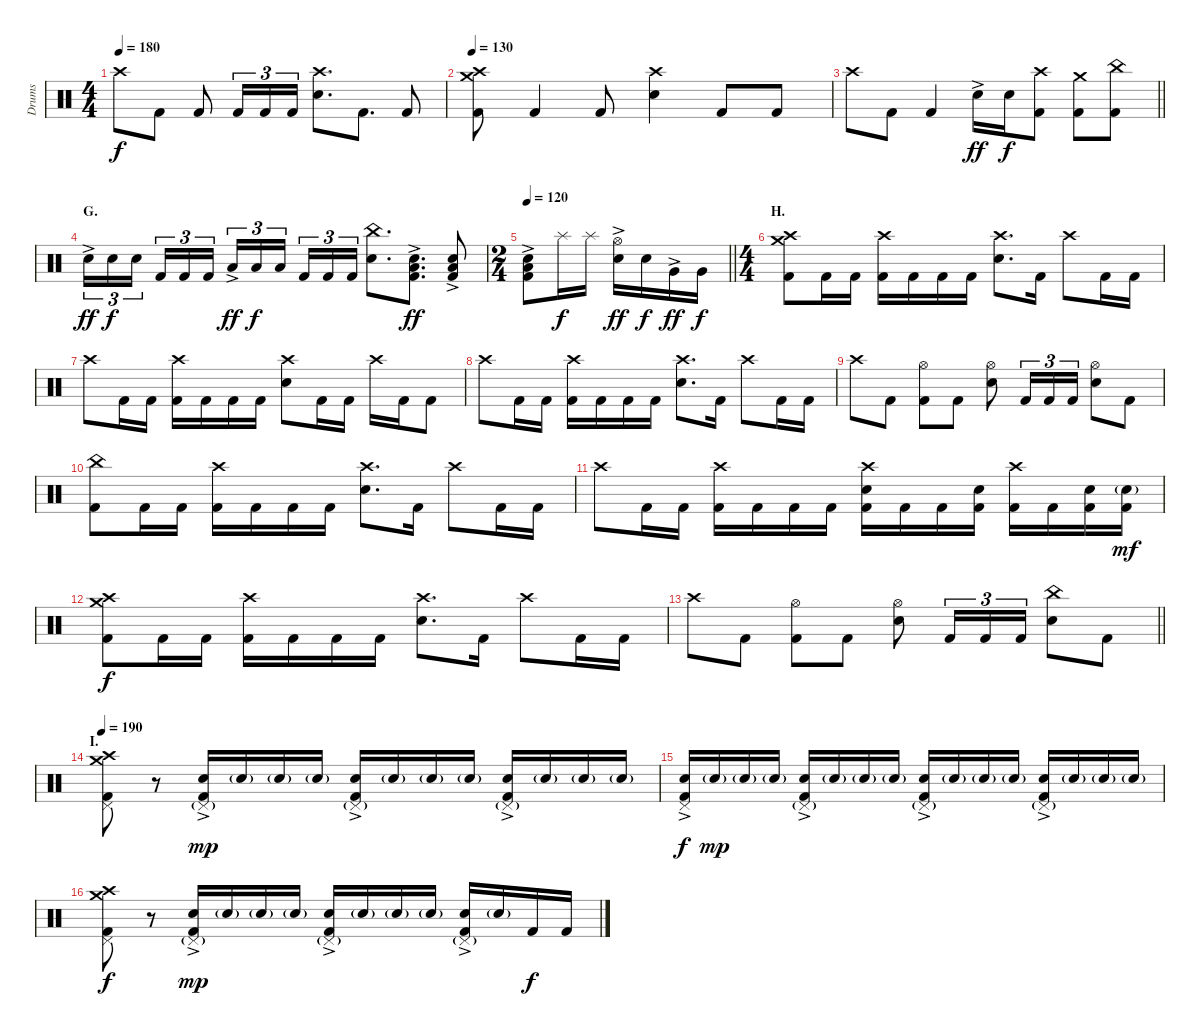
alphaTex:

\track ("Drums" "Drums") {instrument percussion}
\staff {score}
\articulation defaults
\ts (4 4)
\tempo 180
\clef neutral
\ks c "Crash high (hit)".8{dy f} "Kick (hit) 2".8 "Kick (hit) 2".8 "Kick (hit) 2".16{tu (3 2)} "Kick (hit) 2".16{tu (3 2)} "Kick (hit) 2".16{tu (3 2)}
("Crash high (hit)" "Electric Snare (hit)").8{d} "Kick (hit) 2".8{d} "Kick (hit) 2".8 |
\tempo 130
("Crash medium (hit)" "Crash high (hit)" "Kick (hit) 2").8 "Kick (hit) 2".4 "Kick (hit) 2".8 ("Crash high (hit)" "Electric Snare (hit)").4 "Kick (hit) 2".8 "Kick (hit) 2".8 |
\barLineRight lightlight "Crash high (hit)".8 "Kick (hit) 2".8 "Kick (hit) 2".4 "Electric Snare (hit)"{ac}.16{dy ff} "Electric Snare (hit)".16{dy f}
("Crash high (hit)" "Kick (hit) 2").8 ("Crash medium (hit)" "Kick (hit) 2").8 ("China (hit)" "Kick (hit) 2").8 |
\section ("" "G.")
"Electric Snare (hit)"{ac}.16{tu (3 2) dy ff} "Electric Snare (hit)".16{tu (3 2) dy f} "Electric Snare (hit)".16{tu (3 2) beam splitsecondary} "Kick (hit) 2".16{tu (3 2)} "Kick (hit) 2".16{tu (3 2)} "Kick (hit) 2".16{tu (3 2)} "Low Tom (hit)"{ac}.16{tu (3 2) dy ff} "Low Tom (hit)".16{tu (3 2) dy f} "Low Tom (hit)".16{tu (3 2) beam splitsecondary} "Kick (hit) 2".16{tu (3 2)} "Kick (hit) 2".16{tu (3 2)} "Kick (hit) 2".16{tu (3 2)} ("China (hit)" "Electric Snare (hit)").8{d} ("Electric Snare (hit)" "Low Floor Tom (hit)"{ac} "Kick (hit) 2").8{d dy ff} ("Electric Snare (hit)" "Low Floor Tom (hit)"{ac} "Kick (hit) 2").8 |
\ts (2 4)
\tempo 120
\barLineRight lightlight
("Electric Snare (hit)" "Low Floor Tom (hit)"{ac} "Kick (hit) 2").8 "Splash (hit)".16{dy f} "Splash (hit)".16 ("Hi-Hat (open)" "Electric Snare (hit)"{ac}).16{dy ff} "Electric Snare (hit)".16{dy f} "Very Low Tom (hit)"{ac}.16{dy ff} "Very Low Tom (hit)".16{dy f} |
\ts (4 4)
\section ("" "H.")
("Crash medium (hit)" "Crash high (hit)" "Kick (hit) 2").8 "Kick (hit) 2".16 "Kick (hit) 2".16 ("Crash high (hit)" "Kick (hit) 2").16 "Kick (hit) 2".16 "Kick (hit) 2".16 "Kick (hit) 2".16 ("Crash high (hit)" "Electric Snare (hit)").8{d} "Kick (hit) 2".16 "Crash high (hit)".8 "Kick (hit) 2".16 "Kick (hit) 2".16 |
"Crash high (hit)".8 "Kick (hit) 2".16 "Kick (hit) 2".16 ("Crash high (hit)" "Kick (hit) 2").16 "Kick (hit) 2".16 "Kick (hit) 2".16 "Kick (hit) 2".16 ("Crash high (hit)" "Electric Snare (hit)").8 "Kick (hit) 2".16 "Kick (hit) 2".16 "Crash high (hit)".16 "Kick (hit) 2".16 "Kick (hit) 2".8 |
"Crash high (hit)".8 "Kick (hit) 2".16 "Kick (hit) 2".16 ("Crash high (hit)" "Kick (hit) 2").16 "Kick (hit) 2".16 "Kick (hit) 2".16 "Kick (hit) 2".16 ("Crash high (hit)" "Electric Snare (hit)").8{d} "Kick (hit) 2".16 "Crash high (hit)".8 "Kick (hit) 2".16 "Kick (hit) 2".16 |
"Crash high (hit)".8 "Kick (hit) 2".8 ("Hi-Hat (open)" "Kick (hit) 2").8 "Kick (hit) 2".8 ("Hi-Hat (open)" "Electric Snare (hit)").8 "Kick (hit) 2".16{tu (3 2)} "Kick (hit) 2".16{tu (3 2)} "Kick (hit) 2".16{tu (3 2)} ("Hi-Hat (open)" "Electric Snare (hit)").8 "Kick (hit) 2".8 |
("China (hit)" "Kick (hit) 2").8 "Kick (hit) 2".16 "Kick (hit) 2".16 ("Crash high (hit)" "Kick (hit) 2").16 "Kick (hit) 2".16 "Kick (hit) 2".16 "Kick (hit) 2".16 ("Crash high (hit)" "Electric Snare (hit)").8{d} "Kick (hit) 2".16 "Crash high (hit)".8 "Kick (hit) 2".16 "Kick (hit) 2".16 |
"Crash high (hit)".8 "Kick (hit) 2".16 "Kick (hit) 2".16 ("Crash high (hit)" "Kick (hit) 2").16 "Kick (hit) 2".16 "Kick (hit) 2".16 "Kick (hit) 2".16 ("Crash high (hit)" "Electric Snare (hit)" "Kick (hit) 2").16 "Kick (hit) 2".16 "Kick (hit) 2".16 ("Electric Snare (hit)" "Kick (hit) 2").16 ("Crash high (hit)" "Kick (hit) 2").16 "Kick (hit) 2".16 ("Electric Snare (hit)" "Kick (hit) 2").16 ("Electric Snare (hit)"{g} "Kick (hit) 2").16{dy mf} |
("Crash medium (hit)" "Crash high (hit)" "Kick (hit) 2").8{dy f} "Kick (hit) 2".16 "Kick (hit) 2".16 ("Crash high (hit)" "Kick (hit) 2").16 "Kick (hit) 2".16 "Kick (hit) 2".16 "Kick (hit) 2".16 ("Crash high (hit)" "Electric Snare (hit)").8{d} "Kick (hit) 2".16 "Crash high (hit)".8 "Kick (hit) 2".16 "Kick (hit) 2".16 |
\barLineRight lightlight "Crash high (hit)".8 "Kick (hit) 2".8
("Hi-Hat (open)" "Kick (hit) 2").8 "Kick (hit) 2".8 ("Hi-Hat (open)" "Electric Snare (hit)").8 "Kick (hit) 2".16{tu (3 2)} "Kick (hit) 2".16{tu (3 2)} "Kick (hit) 2".16{tu (3 2)} ("China (hit)" "Electric Snare (hit)").8 "Kick (hit) 2".8 |
\section ("" "I.")
\tempo 190
("Crash medium (hit)" "Crash high (hit)" "Pedal Hi-Hat (hit)" "Kick (hit) 2").8 r.8 ("Pedal Hi-Hat (hit)"{g} "Electric Snare (hit)"{ac} "Kick (hit) 2").16{dy mp} "Electric Snare (hit)"{g}.16 "Electric Snare (hit)"{g}.16 "Electric Snare (hit)"{g}.16 ("Pedal Hi-Hat (hit)"{g} "Electric Snare (hit)"{ac} "Kick (hit) 2").16 "Electric Snare (hit)"{g}.16 "Electric Snare (hit)"{g}.16 "Electric Snare (hit)"{g}.16 ("Pedal Hi-Hat (hit)"{g} "Electric Snare (hit)"{ac} "Kick (hit) 2").16 "Electric Snare (hit)"{g}.16 "Electric Snare (hit)"{g}.16 "Electric Snare (hit)"{g}.16 |
("Pedal Hi-Hat (hit)" "Electric Snare (hit)"{ac} "Kick (hit) 2").16{dy f} "Electric Snare (hit)"{g}.16{dy mp} "Electric Snare (hit)"{g}.16 "Electric Snare (hit)"{g}.16 ("Pedal Hi-Hat (hit)"{g} "Electric Snare (hit)"{ac} "Kick (hit) 2").16 "Electric Snare (hit)"{g}.16 "Electric Snare (hit)"{g}.16 "Electric Snare (hit)"{g}.16 ("Pedal Hi-Hat (hit)"{g} "Electric Snare (hit)"{ac} "Kick (hit) 2").16 "Electric Snare (hit)"{g}.16 "Electric Snare (hit)"{g}.16 "Electric Snare (hit)"{g}.16 ("Pedal Hi-Hat (hit)"{g} "Electric Snare (hit)"{ac} "Kick (hit) 2").16 "Electric Snare (hit)"{g}.16 "Electric Snare (hit)"{g}.16 "Electric Snare (hit)"{g}.16 |
("Crash medium (hit)" "Crash high (hit)" "Pedal Hi-Hat (hit)" "Kick (hit) 2").8{dy f} r.8 ("Pedal Hi-Hat (hit)"{g} "Electric Snare (hit)"{ac} "Kick (hit) 2").16{dy mp} "Electric Snare (hit)"{g}.16 "Electric Snare (hit)"{g}.16 "Electric Snare (hit)"{g}.16 ("Pedal Hi-Hat (hit)"{g} "Electric Snare (hit)"{ac} "Kick (hit) 2").16 "Electric Snare (hit)"{g}.16 "Electric Snare (hit)"{g}.16 "Electric Snare (hit)"{g}.16 ("Pedal Hi-Hat (hit)"{g} "Electric Snare (hit)"{ac} "Kick (hit) 2").16 "Electric Snare (hit)"{g}.16 "Kick (hit) 2".16{dy f} "Kick (hit) 2".16
